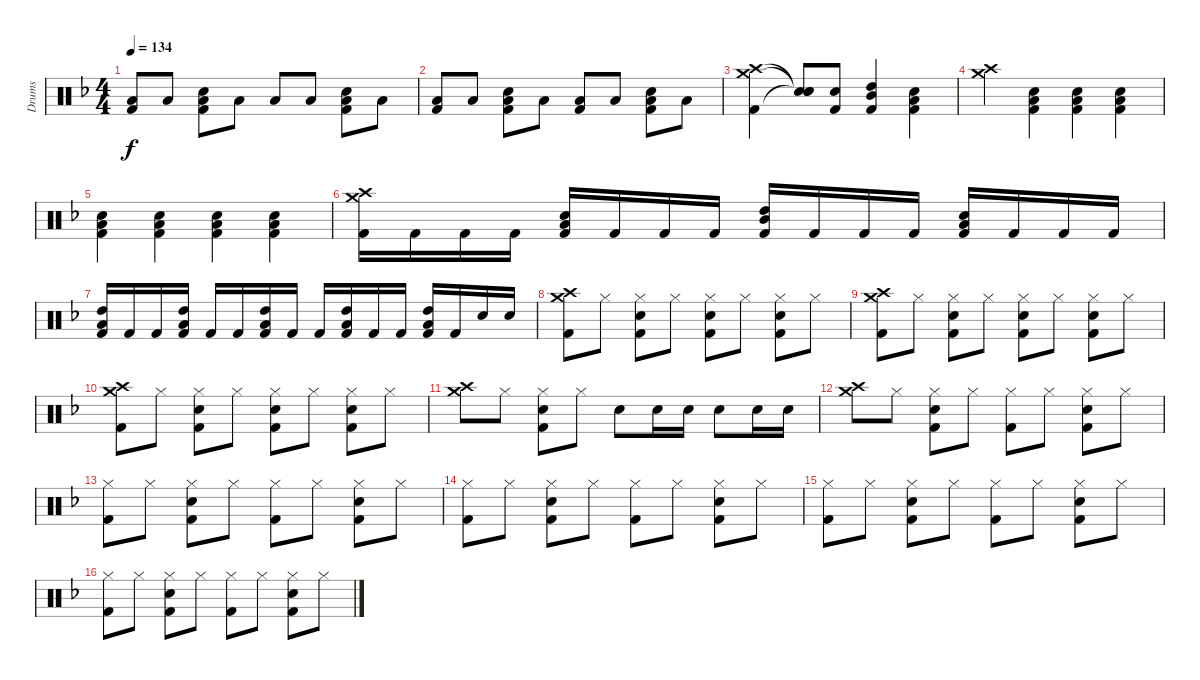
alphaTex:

\track ("Drums" "Drums") {instrument percussion}
\staff {score}
\articulation defaults
\ts (4 4)
\tempo 134
\clef neutral
\ks f
("Low Tom (hit)" "Kick (hit) 2").8{dy f} "Low Tom (hit)".8 ("Low Tom (hit)" "Snare (hit) 2" "Kick (hit) 2").8 "Low Tom (hit)".8 "Low Tom (hit)".8 "Low Tom (hit)".8 ("Low Tom (hit)" "Snare (hit) 2" "Kick (hit) 2").8 "Low Tom (hit)".8 |
("Low Tom (hit)" "Kick (hit) 2").8 "Low Tom (hit)".8 ("Low Tom (hit)" "Kick (hit) 2" "Snare (hit) 2").8 "Low Tom (hit)".8 ("Low Tom (hit)" "Kick (hit) 2").8 "Low Tom (hit)".8 ("Low Tom (hit)" "Snare (hit) 2" "Kick (hit) 2").8 "Low Tom (hit)".8 |
("Kick (hit) 2" "Crash medium (hit)" "Crash high (hit)").4 ("Snare (hit)"{t} "Snare (hit)"{t} "Snare (hit)"{t}).8 ("Snare (hit) 2" "Kick (hit) 2").8 ("High Tom (hit)" "Kick (hit) 2" "Mid Tom (hit)").4 ("Snare (hit) 2" "Kick (hit) 2" "Low Tom (hit)").4 |
("Crash medium (hit)" "Crash high (hit)").4 ("Low Tom (hit)" "Kick (hit) 2" "Snare (hit) 2").4 ("Low Tom (hit)" "Kick (hit) 2" "Snare (hit) 2").4 ("Low Tom (hit)" "Kick (hit) 2" "Snare (hit) 2").4 |
("Low Tom (hit)" "Kick (hit) 2" "Snare (hit) 2").4 ("Low Tom (hit)" "Kick (hit) 2" "Snare (hit) 2").4 ("Low Tom (hit)" "Kick (hit) 2" "Snare (hit) 2").4 ("Low Tom (hit)" "Kick (hit) 2" "Snare (hit) 2").4 |
("Crash high (hit)" "Crash medium (hit)" "Kick (hit) 2").16 "Kick (hit) 2".16 "Kick (hit) 2".16 "Kick (hit) 2".16 ("Kick (hit) 2" "Snare (hit) 2" "Low Tom (hit)").16 "Kick (hit) 2".16 "Kick (hit) 2".16 "Kick (hit) 2".16 ("Kick (hit) 2" "High Tom (hit)" "Mid Tom (hit)").16 "Kick (hit) 2".16 "Kick (hit) 2".16 "Kick (hit) 2".16 ("Kick (hit) 2" "Low Tom (hit)" "Snare (hit) 2").16 "Kick (hit) 2".16 "Kick (hit) 2".16 "Kick (hit) 2".16 |
("Low Tom (hit)" "High Tom (hit)" "Kick (hit) 2").16 "Kick (hit) 2".16 "Kick (hit) 2".16 ("High Tom (hit)" "Low Tom (hit)" "Kick (hit) 2").16 "Kick (hit) 2".16 "Kick (hit) 2".16 ("High Tom (hit)" "Low Tom (hit)" "Kick (hit) 2").16 "Kick (hit) 2".16 "Kick (hit) 2".16 ("High Tom (hit)" "Low Tom (hit)" "Kick (hit) 2").16 "Kick (hit) 2".16 "Kick (hit) 2".16 ("High Tom (hit)" "Low Tom (hit)" "Kick (hit) 2").16 "Kick (hit) 2".16 "Snare (hit) 2".16 "Snare (hit) 2".16 |
("Kick (hit) 2" "Crash medium (hit)" "Crash high (hit)").8 "Hi-Hat (closed)".8 ("Hi-Hat (closed)" "Kick (hit) 2" "Snare (hit) 2").8 "Hi-Hat (closed)".8 ("Hi-Hat (closed)" "Kick (hit) 2" "Snare (hit) 2").8 "Hi-Hat (closed)".8 ("Hi-Hat (closed)" "Kick (hit) 2" "Snare (hit) 2").8 "Hi-Hat (closed)".8 |
("Crash high (hit)" "Crash medium (hit)" "Kick (hit) 2").8 "Hi-Hat (closed)".8 ("Hi-Hat (closed)" "Kick (hit) 2" "Snare (hit) 2").8 "Hi-Hat (closed)".8 ("Hi-Hat (closed)" "Kick (hit) 2" "Snare (hit) 2").8 "Hi-Hat (closed)".8 ("Hi-Hat (closed)" "Kick (hit) 2" "Snare (hit) 2").8 "Hi-Hat (closed)".8 |
("Crash high (hit)" "Crash medium (hit)" "Kick (hit) 2").8 "Hi-Hat (closed)".8 ("Hi-Hat (closed)" "Kick (hit) 2" "Snare (hit) 2").8 "Hi-Hat (closed)".8 ("Hi-Hat (closed)" "Kick (hit) 2" "Snare (hit) 2").8 "Hi-Hat (closed)".8 ("Hi-Hat (closed)" "Kick (hit) 2" "Snare (hit) 2").8 "Hi-Hat (closed)".8 |
("Crash medium (hit)" "Crash high (hit)").8 "Hi-Hat (closed)".8 ("Hi-Hat (closed)" "Kick (hit) 2" "Snare (hit) 2").8 "Hi-Hat (closed)".8 "Snare (hit) 2".8 "Snare (hit) 2".16 "Snare (hit) 2".16 "Snare (hit) 2".8 "Snare (hit) 2".16 "Snare (hit) 2".16 |
("Crash high (hit)" "Crash medium (hit)").8 "Hi-Hat (closed)".8 ("Hi-Hat (closed)" "Kick (hit) 2" "Snare (hit) 2").8 "Hi-Hat (closed)".8 ("Hi-Hat (closed)" "Kick (hit) 2").8 "Hi-Hat (closed)".8 ("Hi-Hat (closed)" "Kick (hit) 2" "Snare (hit) 2").8 "Hi-Hat (closed)".8 |
("Hi-Hat (closed)" "Kick (hit) 2").8 "Hi-Hat (closed)".8 ("Hi-Hat (closed)" "Kick (hit) 2" "Snare (hit) 2").8 "Hi-Hat (closed)".8 ("Hi-Hat (closed)" "Kick (hit) 2").8 "Hi-Hat (closed)".8 ("Hi-Hat (closed)" "Kick (hit) 2" "Snare (hit) 2").8 "Hi-Hat (closed)".8 |
("Hi-Hat (closed)" "Kick (hit) 2").8 "Hi-Hat (closed)".8 ("Hi-Hat (closed)" "Kick (hit) 2" "Snare (hit) 2").8 "Hi-Hat (closed)".8 ("Hi-Hat (closed)" "Kick (hit) 2").8 "Hi-Hat (closed)".8 ("Hi-Hat (closed)" "Kick (hit) 2" "Snare (hit) 2").8 "Hi-Hat (closed)".8 |
("Hi-Hat (closed)" "Kick (hit) 2").8 "Hi-Hat (closed)".8 ("Hi-Hat (closed)" "Kick (hit) 2" "Snare (hit) 2").8 "Hi-Hat (closed)".8 ("Hi-Hat (closed)" "Kick (hit) 2").8 "Hi-Hat (closed)".8 ("Hi-Hat (closed)" "Kick (hit) 2" "Snare (hit) 2").8 "Hi-Hat (closed)".8 |
("Hi-Hat (closed)" "Kick (hit) 2").8 "Hi-Hat (closed)".8 ("Hi-Hat (closed)" "Kick (hit) 2" "Snare (hit) 2").8 "Hi-Hat (closed)".8 ("Hi-Hat (closed)" "Kick (hit) 2").8 "Hi-Hat (closed)".8 ("Hi-Hat (closed)" "Kick (hit) 2" "Snare (hit) 2").8 "Hi-Hat (closed)".8
